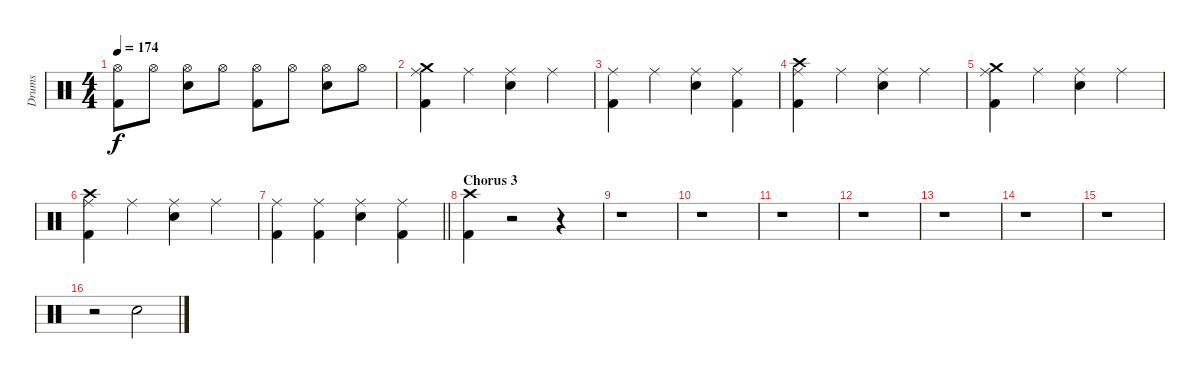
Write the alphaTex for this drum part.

\track ("Drums" "Drums") {instrument percussion}
\staff {score}
\articulation defaults
\ts (4 4)
\tempo 174
\clef neutral
\ks c
("Hi-Hat (open)" "Kick (hit) 2").8{dy f} "Hi-Hat (open)".8 ("Hi-Hat (open)" "Snare (hit) 2").8 "Hi-Hat (open)".8 ("Hi-Hat (open)" "Kick (hit) 2").8 "Hi-Hat (open)".8 ("Hi-Hat (open)" "Snare (hit) 2").8 "Hi-Hat (open)".8 |
("Crash medium (hit)" "Ride (middle)" "Kick (hit) 2").4 "Ride (middle)".4 ("Ride (middle)" "Snare (hit) 2").4 "Ride (middle)".4 |
("Ride (middle)" "Kick (hit) 2").4 "Ride (middle)".4 ("Ride (middle)" "Snare (hit) 2").4 ("Ride (middle)" "Kick (hit) 2").4 |
("Crash high (hit)" "Ride (middle)" "Kick (hit) 2").4 "Ride (middle)".4 ("Ride (middle)" "Snare (hit) 2").4 "Ride (middle)".4 |
("Crash medium (hit)" "Ride (middle)" "Kick (hit) 2").4 "Ride (middle)".4 ("Ride (middle)" "Snare (hit) 2").4 "Ride (middle)".4 |
("Crash high (hit)" "Ride (middle)" "Kick (hit) 2").4 "Ride (middle)".4 ("Ride (middle)" "Snare (hit) 2").4 "Ride (middle)".4 |
\barLineRight lightlight
("Ride (middle)" "Kick (hit) 2").4 ("Ride (middle)" "Kick (hit) 2").4 ("Ride (middle)" "Snare (hit) 2").4 ("Ride (middle)" "Kick (hit) 2").4 |
\section ("" "Chorus 3")
("Crash high (hit)" "Kick (hit) 2").4 r.2 r.4 |
r.1 |
r.1 |
r.1 |
r.1 |
r.1 |
r.1 |
r.1 |
r.2 "Snare (hit) 2".2
